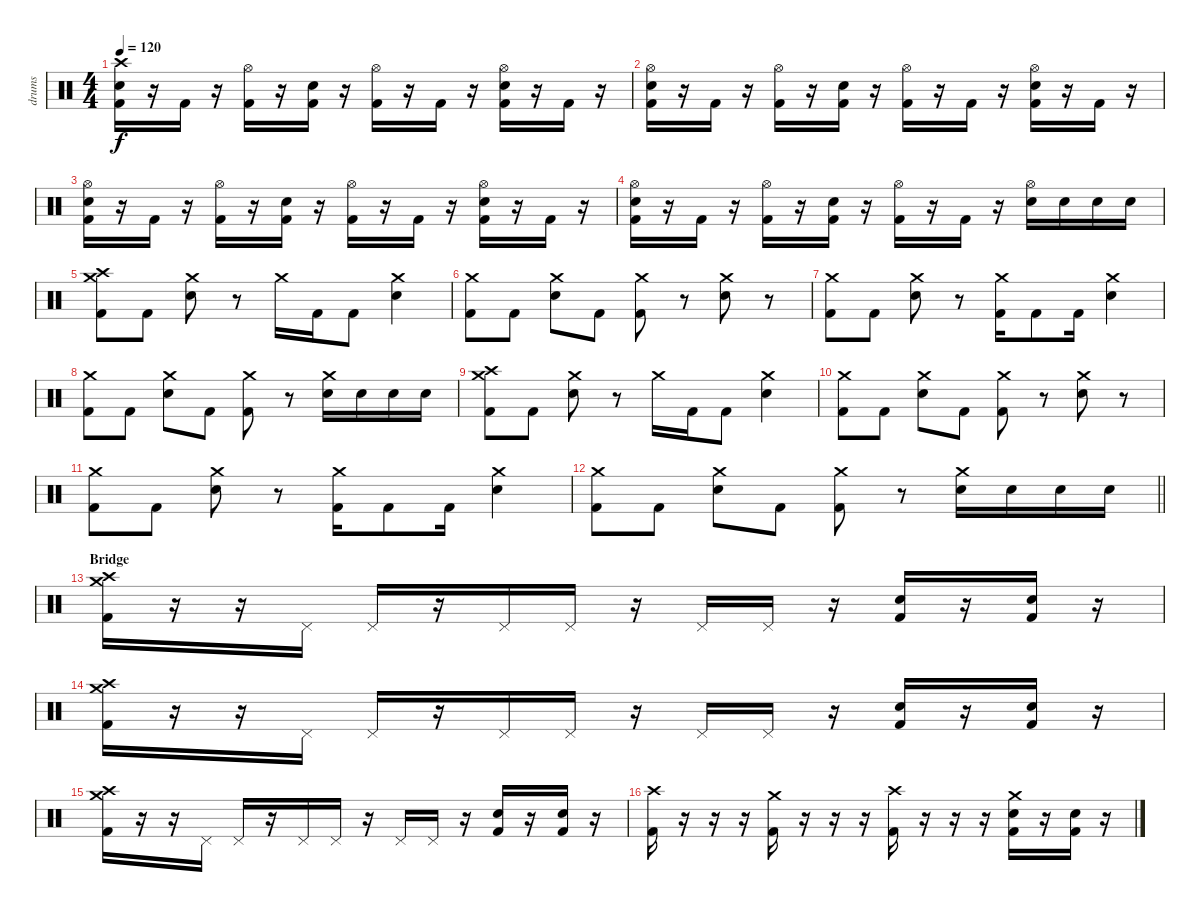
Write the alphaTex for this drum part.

\track ("drums" "drums") {instrument percussion}
\staff {score}
\articulation defaults
\ts (4 4)
\tempo 120
\clef neutral
\ks c
("Kick (hit) 2" "Electric Snare (hit)" "Crash high (hit)").16{dy f} r.16 "Kick (hit) 2".16 r.16 ("Kick (hit) 2" "Hi-Hat (open)").16 r.16 ("Kick (hit) 2" "Electric Snare (hit)").16 r.16 ("Kick (hit) 2" "Hi-Hat (open)").16 r.16 "Kick (hit) 2".16 r.16 ("Kick (hit) 2" "Electric Snare (hit)" "Hi-Hat (open)").16 r.16 "Kick (hit) 2".16 r.16 |
("Kick (hit) 2" "Electric Snare (hit)" "Hi-Hat (open)").16 r.16 "Kick (hit) 2".16 r.16 ("Kick (hit) 2" "Hi-Hat (open)").16 r.16 ("Kick (hit) 2" "Electric Snare (hit)").16 r.16 ("Kick (hit) 2" "Hi-Hat (open)").16 r.16 "Kick (hit) 2".16 r.16 ("Kick (hit) 2" "Electric Snare (hit)" "Hi-Hat (open)").16 r.16 "Kick (hit) 2".16 r.16 |
("Kick (hit) 2" "Electric Snare (hit)" "Hi-Hat (open)").16 r.16 "Kick (hit) 2".16 r.16 ("Kick (hit) 2" "Hi-Hat (open)").16 r.16 ("Kick (hit) 2" "Electric Snare (hit)").16 r.16 ("Kick (hit) 2" "Hi-Hat (open)").16 r.16 "Kick (hit) 2".16 r.16 ("Kick (hit) 2" "Electric Snare (hit)" "Hi-Hat (open)").16 r.16 "Kick (hit) 2".16 r.16 |
("Kick (hit) 2" "Electric Snare (hit)" "Hi-Hat (open)").16 r.16 "Kick (hit) 2".16 r.16 ("Kick (hit) 2" "Hi-Hat (open)").16 r.16 ("Kick (hit) 2" "Electric Snare (hit)").16 r.16 ("Kick (hit) 2" "Hi-Hat (open)").16 r.16 "Kick (hit) 2".16 r.16 ("Electric Snare (hit)" "Hi-Hat (open)").16 "Electric Snare (hit)".16 "Electric Snare (hit)".16 "Electric Snare (hit)".16 |
("Crash medium (hit)" "Crash high (hit)" "Kick (hit) 2").8 "Kick (hit) 2".8 ("Crash medium (hit)" "Electric Snare (hit)").8 r.8 "Crash medium (hit)".16 "Kick (hit) 2".16 "Kick (hit) 2".8 ("Crash medium (hit)" "Electric Snare (hit)").4 |
("Crash medium (hit)" "Kick (hit) 2").8 "Kick (hit) 2".8 ("Crash medium (hit)" "Electric Snare (hit)").8 "Kick (hit) 2".8 ("Crash medium (hit)" "Kick (hit) 2").8 r.8 ("Crash medium (hit)" "Electric Snare (hit)").8 r.8 |
("Crash medium (hit)" "Kick (hit) 2").8 "Kick (hit) 2".8 ("Crash medium (hit)" "Electric Snare (hit)").8 r.8 ("Crash medium (hit)" "Kick (hit) 2").16 "Kick (hit) 2".8 "Kick (hit) 2".16 ("Crash medium (hit)" "Electric Snare (hit)").4 |
("Crash medium (hit)" "Kick (hit) 2").8 "Kick (hit) 2".8 ("Crash medium (hit)" "Electric Snare (hit)").8 "Kick (hit) 2".8 ("Crash medium (hit)" "Kick (hit) 2").8 r.8 ("Crash medium (hit)" "Electric Snare (hit)").16 "Electric Snare (hit)".16 "Electric Snare (hit)".16 "Electric Snare (hit)".16 |
("Crash medium (hit)" "Crash high (hit)" "Kick (hit) 2").8 "Kick (hit) 2".8 ("Crash medium (hit)" "Electric Snare (hit)").8 r.8 "Crash medium (hit)".16 "Kick (hit) 2".16 "Kick (hit) 2".8 ("Crash medium (hit)" "Electric Snare (hit)").4 |
("Crash medium (hit)" "Kick (hit) 2").8 "Kick (hit) 2".8 ("Crash medium (hit)" "Electric Snare (hit)").8 "Kick (hit) 2".8 ("Crash medium (hit)" "Kick (hit) 2").8 r.8 ("Crash medium (hit)" "Electric Snare (hit)").8 r.8 |
("Crash medium (hit)" "Kick (hit) 2").8 "Kick (hit) 2".8 ("Crash medium (hit)" "Electric Snare (hit)").8 r.8 ("Crash medium (hit)" "Kick (hit) 2").16 "Kick (hit) 2".8 "Kick (hit) 2".16 ("Crash medium (hit)" "Electric Snare (hit)").4 |
\barLineRight lightlight
("Crash medium (hit)" "Kick (hit) 2").8 "Kick (hit) 2".8 ("Crash medium (hit)" "Electric Snare (hit)").8 "Kick (hit) 2".8 ("Crash medium (hit)" "Kick (hit) 2").8 r.8 ("Crash medium (hit)" "Electric Snare (hit)").16 "Electric Snare (hit)".16 "Electric Snare (hit)".16 "Electric Snare (hit)".16 |
\section ("" "Bridge")
("Kick (hit) 2" "Crash high (hit)" "Crash medium (hit)").16 r.16 r.16 "Pedal Hi-Hat (hit)".16 "Pedal Hi-Hat (hit)".16 r.16 "Pedal Hi-Hat (hit)".16 "Pedal Hi-Hat (hit)".16 r.16 "Pedal Hi-Hat (hit)".16 "Pedal Hi-Hat (hit)".16 r.16 ("Kick (hit) 2" "Electric Snare (hit)").16 r.16 ("Kick (hit) 2" "Electric Snare (hit)").16 r.16 |
("Kick (hit) 2" "Crash high (hit)" "Crash medium (hit)").16 r.16 r.16 "Pedal Hi-Hat (hit)".16 "Pedal Hi-Hat (hit)".16 r.16 "Pedal Hi-Hat (hit)".16 "Pedal Hi-Hat (hit)".16 r.16 "Pedal Hi-Hat (hit)".16 "Pedal Hi-Hat (hit)".16 r.16 ("Kick (hit) 2" "Electric Snare (hit)").16 r.16 ("Kick (hit) 2" "Electric Snare (hit)").16 r.16 |
("Kick (hit) 2" "Crash high (hit)" "Crash medium (hit)").16 r.16 r.16 "Pedal Hi-Hat (hit)".16 "Pedal Hi-Hat (hit)".16 r.16 "Pedal Hi-Hat (hit)".16 "Pedal Hi-Hat (hit)".16 r.16 "Pedal Hi-Hat (hit)".16 "Pedal Hi-Hat (hit)".16 r.16 ("Kick (hit) 2" "Electric Snare (hit)").16 r.16 ("Kick (hit) 2" "Electric Snare (hit)").16 r.16 |
("Kick (hit) 2" "Crash high (hit)").16 r.16 r.16 r.16 ("Kick (hit) 2" "Crash medium (hit)").16 r.16 r.16 r.16 ("Kick (hit) 2" "Crash high (hit)").16 r.16 r.16 r.16 ("Kick (hit) 2" "Electric Snare (hit)" "Crash medium (hit)").16 r.16 ("Kick (hit) 2" "Electric Snare (hit)").16 r.16
